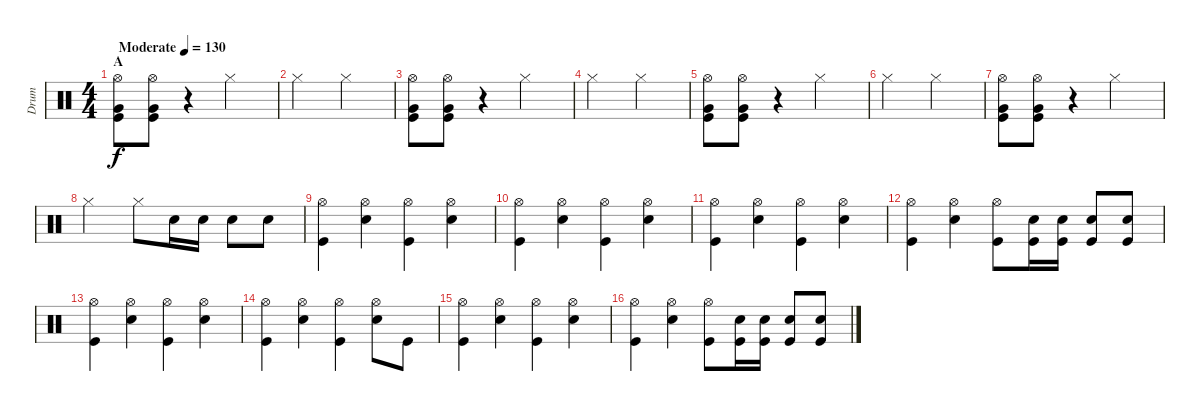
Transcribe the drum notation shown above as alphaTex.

\track ("Drum" "Drum") {instrument percussion}
\staff
\articulation defaults
\ts (4 4)
\section ("" "A")
\tempo (130 "Moderate")
\clef neutral
\ks c
("Hi-Hat (open)" "Very Low Tom (hit)" "Kick (hit)").8{dy f} ("Hi-Hat (open)" "Very Low Tom (hit)" "Kick (hit)").8 r.4 "Hi-Hat (closed)".2 |
"Hi-Hat (closed)".2 "Hi-Hat (closed)".2 |
("Hi-Hat (open)" "Very Low Tom (hit)" "Kick (hit)").8 ("Hi-Hat (open)" "Very Low Tom (hit)" "Kick (hit)").8 r.4 "Hi-Hat (closed)".2 |
"Hi-Hat (closed)".2 "Hi-Hat (closed)".2 |
("Hi-Hat (open)" "Very Low Tom (hit)" "Kick (hit)").8 ("Hi-Hat (open)" "Very Low Tom (hit)" "Kick (hit)").8 r.4 "Hi-Hat (closed)".2 |
"Hi-Hat (closed)".2 "Hi-Hat (closed)".2 |
("Hi-Hat (open)" "Very Low Tom (hit)" "Kick (hit)").8 ("Hi-Hat (open)" "Very Low Tom (hit)" "Kick (hit)").8 r.4 "Hi-Hat (closed)".2 |
"Hi-Hat (closed)".2 "Hi-Hat (closed)".8 "Snare (hit) 2".16 "Snare (hit) 2".16 "Snare (hit) 2".8 "Snare (hit) 2".8 |
("Hi-Hat (open)" "Kick (hit)").4 ("Hi-Hat (open)" "Snare (hit) 2").4 ("Hi-Hat (open)" "Kick (hit)").4 ("Hi-Hat (open)" "Snare (hit) 2").4 |
("Hi-Hat (open)" "Kick (hit)").4 ("Hi-Hat (open)" "Snare (hit) 2").4 ("Hi-Hat (open)" "Kick (hit)").4 ("Hi-Hat (open)" "Snare (hit) 2").4 |
("Hi-Hat (open)" "Kick (hit)").4 ("Hi-Hat (open)" "Snare (hit) 2").4 ("Hi-Hat (open)" "Kick (hit)").4 ("Hi-Hat (open)" "Snare (hit) 2").4 |
("Hi-Hat (open)" "Kick (hit)").4 ("Hi-Hat (open)" "Snare (hit) 2").4 ("Hi-Hat (open)" "Kick (hit)").8 ("Snare (hit) 2" "Kick (hit)").16 ("Snare (hit) 2" "Kick (hit)").16 ("Snare (hit) 2" "Kick (hit)").8 ("Snare (hit) 2" "Kick (hit)").8 |
("Hi-Hat (open)" "Kick (hit)").4 ("Hi-Hat (open)" "Snare (hit) 2").4 ("Hi-Hat (open)" "Kick (hit)").4 ("Hi-Hat (open)" "Snare (hit) 2").4 |
("Hi-Hat (open)" "Kick (hit)").4 ("Hi-Hat (open)" "Snare (hit) 2").4 ("Hi-Hat (open)" "Kick (hit)").4 ("Hi-Hat (open)" "Snare (hit) 2").8 "Kick (hit)".8 |
("Hi-Hat (open)" "Kick (hit)").4 ("Hi-Hat (open)" "Snare (hit) 2").4 ("Hi-Hat (open)" "Kick (hit)").4 ("Hi-Hat (open)" "Snare (hit) 2").4 |
("Hi-Hat (open)" "Kick (hit)").4 ("Hi-Hat (open)" "Snare (hit) 2").4 ("Hi-Hat (open)" "Kick (hit)").8 ("Snare (hit) 2" "Kick (hit)").16 ("Snare (hit) 2" "Kick (hit)").16 ("Snare (hit) 2" "Kick (hit)").8 ("Snare (hit) 2" "Kick (hit)").8
